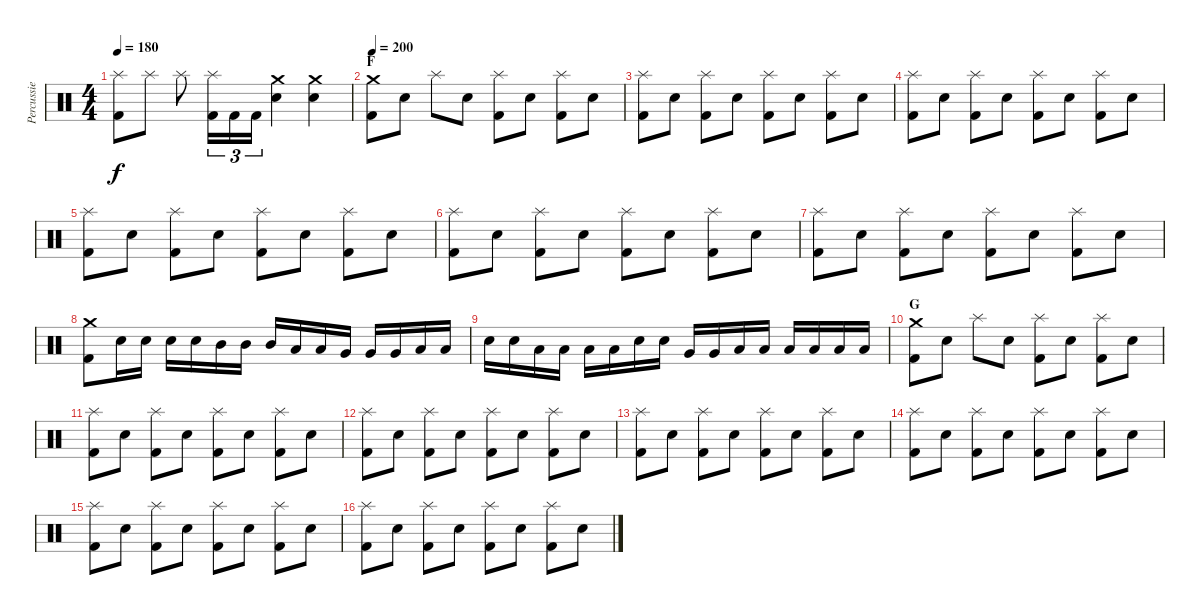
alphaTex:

\track ("Percussie" "Percussie") {instrument percussion}
\staff {score}
\articulation defaults
\ts (4 4)
\tempo 180
\clef neutral
\ks c
("Splash (hit)" "Kick (hit) 2").8{dy f} "Splash (hit)".8 "Splash (hit)".8 ("Splash (hit)" "Kick (hit) 2").16{tu (3 2)} "Kick (hit) 2".16{tu (3 2)} "Kick (hit) 2".16{tu (3 2)} ("Crash medium (hit)" "Electric Snare (hit)").4 ("Crash medium (hit)" "Electric Snare (hit)").4 |
\section ("" "F")
\tempo 200
("Crash medium (hit)" "Kick (hit) 2").8 "Electric Snare (hit)".8 "Splash (hit)".8 "Electric Snare (hit)".8 ("Splash (hit)" "Kick (hit) 2").8 "Electric Snare (hit)".8 ("Splash (hit)" "Kick (hit) 2").8 "Electric Snare (hit)".8 |
("Splash (hit)" "Kick (hit) 2").8 "Electric Snare (hit)".8 ("Splash (hit)" "Kick (hit) 2").8 "Electric Snare (hit)".8 ("Splash (hit)" "Kick (hit) 2").8 "Electric Snare (hit)".8 ("Splash (hit)" "Kick (hit) 2").8 "Electric Snare (hit)".8 |
("Splash (hit)" "Kick (hit) 2").8 "Electric Snare (hit)".8 ("Splash (hit)" "Kick (hit) 2").8 "Electric Snare (hit)".8 ("Splash (hit)" "Kick (hit) 2").8 "Electric Snare (hit)".8 ("Splash (hit)" "Kick (hit) 2").8 "Electric Snare (hit)".8 |
("Splash (hit)" "Kick (hit) 2").8 "Electric Snare (hit)".8 ("Splash (hit)" "Kick (hit) 2").8 "Electric Snare (hit)".8 ("Splash (hit)" "Kick (hit) 2").8 "Electric Snare (hit)".8 ("Splash (hit)" "Kick (hit) 2").8 "Electric Snare (hit)".8 |
("Splash (hit)" "Kick (hit) 2").8 "Electric Snare (hit)".8 ("Splash (hit)" "Kick (hit) 2").8 "Electric Snare (hit)".8 ("Splash (hit)" "Kick (hit) 2").8 "Electric Snare (hit)".8 ("Splash (hit)" "Kick (hit) 2").8 "Electric Snare (hit)".8 |
("Splash (hit)" "Kick (hit) 2").8 "Electric Snare (hit)".8 ("Splash (hit)" "Kick (hit) 2").8 "Electric Snare (hit)".8 ("Splash (hit)" "Kick (hit) 2").8 "Electric Snare (hit)".8 ("Splash (hit)" "Kick (hit) 2").8 "Electric Snare (hit)".8 |
("Crash medium (hit)" "Kick (hit) 2").8 "Electric Snare (hit)".16 "Electric Snare (hit)".16 "Electric Snare (hit)".16 "Electric Snare (hit)".16 "Mid Tom (hit)".16 "Mid Tom (hit)".16 "Mid Tom (hit)".16 "Low Tom (hit)".16 "Low Tom (hit)".16 "Very Low Tom (hit)".16 "Very Low Tom (hit)".16 "Very Low Tom (hit)".16 "Low Floor Tom (hit)".16 "Low Floor Tom (hit)".16 |
"Electric Snare (hit)".16 "Electric Snare (hit)".16 "Low Tom (hit)".16 "Low Tom (hit)".16 "Low Tom (hit)".16 "Low Tom (hit)".16 "Electric Snare (hit)".16 "Electric Snare (hit)".16 "Very Low Tom (hit)".16 "Very Low Tom (hit)".16 "Low Floor Tom (hit)".16 "Low Floor Tom (hit)".16 "Low Floor Tom (hit)".16 "Low Floor Tom (hit)".16 "Low Floor Tom (hit)".16 "Low Floor Tom (hit)".16 |
\section ("" "G")
("Crash medium (hit)" "Kick (hit) 2").8 "Electric Snare (hit)".8 "Splash (hit)".8 "Electric Snare (hit)".8 ("Splash (hit)" "Kick (hit) 2").8 "Electric Snare (hit)".8 ("Splash (hit)" "Kick (hit) 2").8 "Electric Snare (hit)".8 |
("Splash (hit)" "Kick (hit) 2").8 "Electric Snare (hit)".8 ("Splash (hit)" "Kick (hit) 2").8 "Electric Snare (hit)".8 ("Splash (hit)" "Kick (hit) 2").8 "Electric Snare (hit)".8 ("Splash (hit)" "Kick (hit) 2").8 "Electric Snare (hit)".8 |
("Splash (hit)" "Kick (hit) 2").8 "Electric Snare (hit)".8 ("Splash (hit)" "Kick (hit) 2").8 "Electric Snare (hit)".8 ("Splash (hit)" "Kick (hit) 2").8 "Electric Snare (hit)".8 ("Splash (hit)" "Kick (hit) 2").8 "Electric Snare (hit)".8 |
("Splash (hit)" "Kick (hit) 2").8 "Electric Snare (hit)".8 ("Splash (hit)" "Kick (hit) 2").8 "Electric Snare (hit)".8 ("Splash (hit)" "Kick (hit) 2").8 "Electric Snare (hit)".8 ("Splash (hit)" "Kick (hit) 2").8 "Electric Snare (hit)".8 |
("Splash (hit)" "Kick (hit) 2").8 "Electric Snare (hit)".8 ("Splash (hit)" "Kick (hit) 2").8 "Electric Snare (hit)".8 ("Splash (hit)" "Kick (hit) 2").8 "Electric Snare (hit)".8 ("Splash (hit)" "Kick (hit) 2").8 "Electric Snare (hit)".8 |
("Splash (hit)" "Kick (hit) 2").8 "Electric Snare (hit)".8 ("Splash (hit)" "Kick (hit) 2").8 "Electric Snare (hit)".8 ("Splash (hit)" "Kick (hit) 2").8 "Electric Snare (hit)".8 ("Splash (hit)" "Kick (hit) 2").8 "Electric Snare (hit)".8 |
("Splash (hit)" "Kick (hit) 2").8 "Electric Snare (hit)".8 ("Splash (hit)" "Kick (hit) 2").8 "Electric Snare (hit)".8 ("Splash (hit)" "Kick (hit) 2").8 "Electric Snare (hit)".8 ("Splash (hit)" "Kick (hit) 2").8 "Electric Snare (hit)".8
